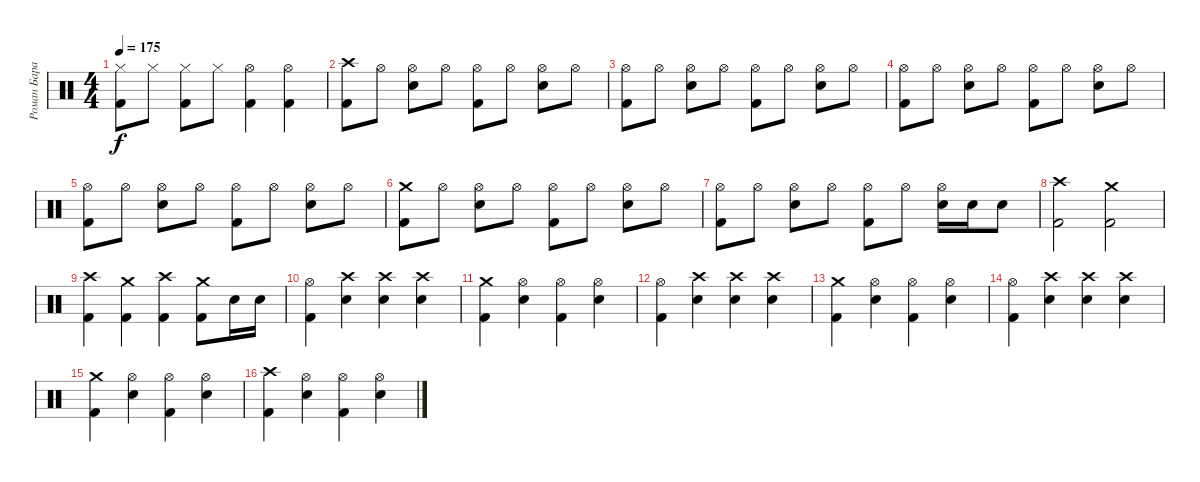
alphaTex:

\track ("Роман Баранюк" "Роман Бара") {instrument percussion}
\staff {score}
\articulation defaults
\ts (4 4)
\tempo 175
\clef neutral
\ks c
("Hi-Hat (closed)" "Kick (hit) 2").8{dy f} "Hi-Hat (closed)".8 ("Hi-Hat (closed)" "Kick (hit) 2").8 "Hi-Hat (closed)".8 ("Hi-Hat (open)" "Kick (hit) 2").4 ("Hi-Hat (open)" "Kick (hit) 2").4 |
("Crash high (hit)" "Kick (hit) 2").8 "Hi-Hat (open)".8 ("Hi-Hat (open)" "Snare (hit) 2").8 "Hi-Hat (open)".8 ("Hi-Hat (open)" "Kick (hit) 2").8 "Hi-Hat (open)".8 ("Hi-Hat (open)" "Snare (hit) 2").8 "Hi-Hat (open)".8 |
("Hi-Hat (open)" "Kick (hit) 2").8 "Hi-Hat (open)".8 ("Hi-Hat (open)" "Snare (hit) 2").8 "Hi-Hat (open)".8 ("Hi-Hat (open)" "Kick (hit) 2").8 "Hi-Hat (open)".8 ("Hi-Hat (open)" "Snare (hit) 2").8 "Hi-Hat (open)".8 |
("Hi-Hat (open)" "Kick (hit) 2").8 "Hi-Hat (open)".8 ("Hi-Hat (open)" "Snare (hit) 2").8 "Hi-Hat (open)".8 ("Hi-Hat (open)" "Kick (hit) 2").8 "Hi-Hat (open)".8 ("Hi-Hat (open)" "Snare (hit) 2").8 "Hi-Hat (open)".8 |
("Hi-Hat (open)" "Kick (hit) 2").8 "Hi-Hat (open)".8 ("Hi-Hat (open)" "Snare (hit) 2").8 "Hi-Hat (open)".8 ("Hi-Hat (open)" "Kick (hit) 2").8 "Hi-Hat (open)".8 ("Hi-Hat (open)" "Snare (hit) 2").8 "Hi-Hat (open)".8 |
("Crash medium (hit)" "Kick (hit) 2").8 "Hi-Hat (open)".8 ("Hi-Hat (open)" "Snare (hit) 2").8 "Hi-Hat (open)".8 ("Hi-Hat (open)" "Kick (hit) 2").8 "Hi-Hat (open)".8 ("Hi-Hat (open)" "Snare (hit) 2").8 "Hi-Hat (open)".8 |
("Hi-Hat (open)" "Kick (hit) 2").8 "Hi-Hat (open)".8 ("Hi-Hat (open)" "Snare (hit) 2").8 "Hi-Hat (open)".8 ("Hi-Hat (open)" "Kick (hit) 2").8 "Hi-Hat (open)".8 ("Hi-Hat (open)" "Snare (hit) 2").16 "Snare (hit) 2".16 "Snare (hit) 2".8 |
("Crash high (hit)" "Kick (hit) 2").2 ("Crash medium (hit)" "Kick (hit) 2").2 |
("Crash high (hit)" "Kick (hit) 2").4 ("Crash medium (hit)" "Kick (hit) 2").4 ("Crash high (hit)" "Kick (hit) 2").4 ("Crash medium (hit)" "Kick (hit) 2").8 "Snare (hit) 2".16 "Snare (hit) 2".16 |
("Hi-Hat (open)" "Kick (hit) 2").4 ("Crash high (hit)" "Snare (hit) 2").4 ("Crash high (hit)" "Snare (hit) 2").4 ("Crash high (hit)" "Snare (hit) 2").4 |
("Crash medium (hit)" "Kick (hit) 2").4 ("Hi-Hat (open)" "Snare (hit) 2").4 ("Hi-Hat (open)" "Kick (hit) 2").4 ("Hi-Hat (open)" "Snare (hit) 2").4 |
("Hi-Hat (open)" "Kick (hit) 2").4 ("Crash high (hit)" "Snare (hit) 2").4 ("Crash high (hit)" "Snare (hit) 2").4 ("Crash high (hit)" "Snare (hit) 2").4 |
("Crash medium (hit)" "Kick (hit) 2").4 ("Hi-Hat (open)" "Snare (hit) 2").4 ("Hi-Hat (open)" "Kick (hit) 2").4 ("Hi-Hat (open)" "Snare (hit) 2").4 |
("Hi-Hat (open)" "Kick (hit) 2").4 ("Crash high (hit)" "Snare (hit) 2").4 ("Crash high (hit)" "Snare (hit) 2").4 ("Crash high (hit)" "Snare (hit) 2").4 |
("Crash medium (hit)" "Kick (hit) 2").4 ("Hi-Hat (open)" "Snare (hit) 2").4 ("Hi-Hat (open)" "Kick (hit) 2").4 ("Hi-Hat (open)" "Snare (hit) 2").4 |
("Crash high (hit)" "Kick (hit) 2").4 ("Hi-Hat (open)" "Snare (hit) 2").4 ("Hi-Hat (open)" "Kick (hit) 2").4 ("Hi-Hat (open)" "Snare (hit) 2").4
